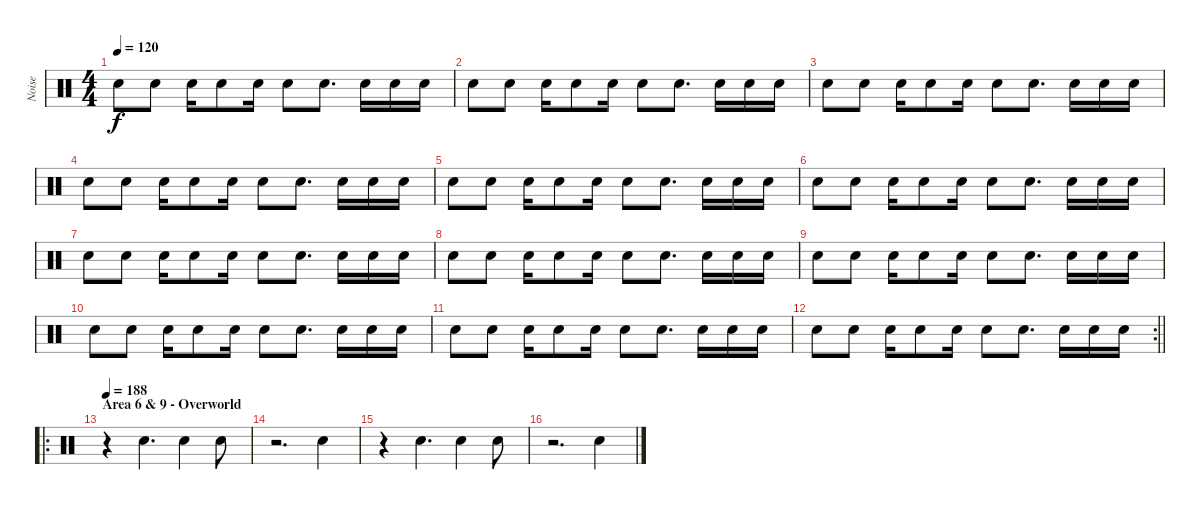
\track ("Noise" "Noise") {instrument percussion}
\staff {score}
\articulation defaults
\ts (4 4)
\tempo 120
\clef neutral
\ks c "Snare (hit) 2".8{dy f} "Snare (hit) 2".8 "Snare (hit) 2".16 "Snare (hit) 2".8 "Snare (hit) 2".16 "Snare (hit) 2".8 "Snare (hit) 2".8{d} "Snare (hit) 2".16 "Snare (hit) 2".16 "Snare (hit) 2".16
|
"Snare (hit) 2".8 "Snare (hit) 2".8 "Snare (hit) 2".16 "Snare (hit) 2".8 "Snare (hit) 2".16 "Snare (hit) 2".8 "Snare (hit) 2".8{d} "Snare (hit) 2".16 "Snare (hit) 2".16 "Snare (hit) 2".16 |
"Snare (hit) 2".8 "Snare (hit) 2".8 "Snare (hit) 2".16 "Snare (hit) 2".8 "Snare (hit) 2".16 "Snare (hit) 2".8 "Snare (hit) 2".8{d} "Snare (hit) 2".16 "Snare (hit) 2".16 "Snare (hit) 2".16 |
"Snare (hit) 2".8 "Snare (hit) 2".8 "Snare (hit) 2".16 "Snare (hit) 2".8 "Snare (hit) 2".16 "Snare (hit) 2".8 "Snare (hit) 2".8{d} "Snare (hit) 2".16 "Snare (hit) 2".16 "Snare (hit) 2".16 |
"Snare (hit) 2".8 "Snare (hit) 2".8 "Snare (hit) 2".16 "Snare (hit) 2".8 "Snare (hit) 2".16 "Snare (hit) 2".8 "Snare (hit) 2".8{d} "Snare (hit) 2".16 "Snare (hit) 2".16 "Snare (hit) 2".16 |
"Snare (hit) 2".8 "Snare (hit) 2".8 "Snare (hit) 2".16 "Snare (hit) 2".8 "Snare (hit) 2".16 "Snare (hit) 2".8 "Snare (hit) 2".8{d} "Snare (hit) 2".16 "Snare (hit) 2".16 "Snare (hit) 2".16 |
"Snare (hit) 2".8 "Snare (hit) 2".8 "Snare (hit) 2".16 "Snare (hit) 2".8 "Snare (hit) 2".16 "Snare (hit) 2".8 "Snare (hit) 2".8{d} "Snare (hit) 2".16 "Snare (hit) 2".16 "Snare (hit) 2".16 |
"Snare (hit) 2".8 "Snare (hit) 2".8 "Snare (hit) 2".16 "Snare (hit) 2".8 "Snare (hit) 2".16 "Snare (hit) 2".8 "Snare (hit) 2".8{d} "Snare (hit) 2".16 "Snare (hit) 2".16 "Snare (hit) 2".16 |
"Snare (hit) 2".8 "Snare (hit) 2".8 "Snare (hit) 2".16 "Snare (hit) 2".8 "Snare (hit) 2".16 "Snare (hit) 2".8 "Snare (hit) 2".8{d} "Snare (hit) 2".16 "Snare (hit) 2".16 "Snare (hit) 2".16 |
"Snare (hit) 2".8 "Snare (hit) 2".8 "Snare (hit) 2".16 "Snare (hit) 2".8 "Snare (hit) 2".16 "Snare (hit) 2".8 "Snare (hit) 2".8{d} "Snare (hit) 2".16 "Snare (hit) 2".16 "Snare (hit) 2".16 |
"Snare (hit) 2".8 "Snare (hit) 2".8 "Snare (hit) 2".16 "Snare (hit) 2".8 "Snare (hit) 2".16 "Snare (hit) 2".8 "Snare (hit) 2".8{d} "Snare (hit) 2".16 "Snare (hit) 2".16 "Snare (hit) 2".16 |
\rc 2
\barLineRight lightlight "Snare (hit) 2".8 "Snare (hit) 2".8 "Snare (hit) 2".16 "Snare (hit) 2".8 "Snare (hit) 2".16 "Snare (hit) 2".8 "Snare (hit) 2".8{d} "Snare (hit) 2".16 "Snare (hit) 2".16 "Snare (hit) 2".16
|
\ro
\section ("" "Area 6 & 9 - Overworld")
\tempo 188
r.4{volume 13} "Snare (hit) 2".4{d} "Snare (hit) 2".4 "Snare (hit) 2".8 |
r.2{d} "Snare (hit) 2".4 |
r.4 "Snare (hit) 2".4{d} "Snare (hit) 2".4 "Snare (hit) 2".8 |
r.2{d} "Snare (hit) 2".4
